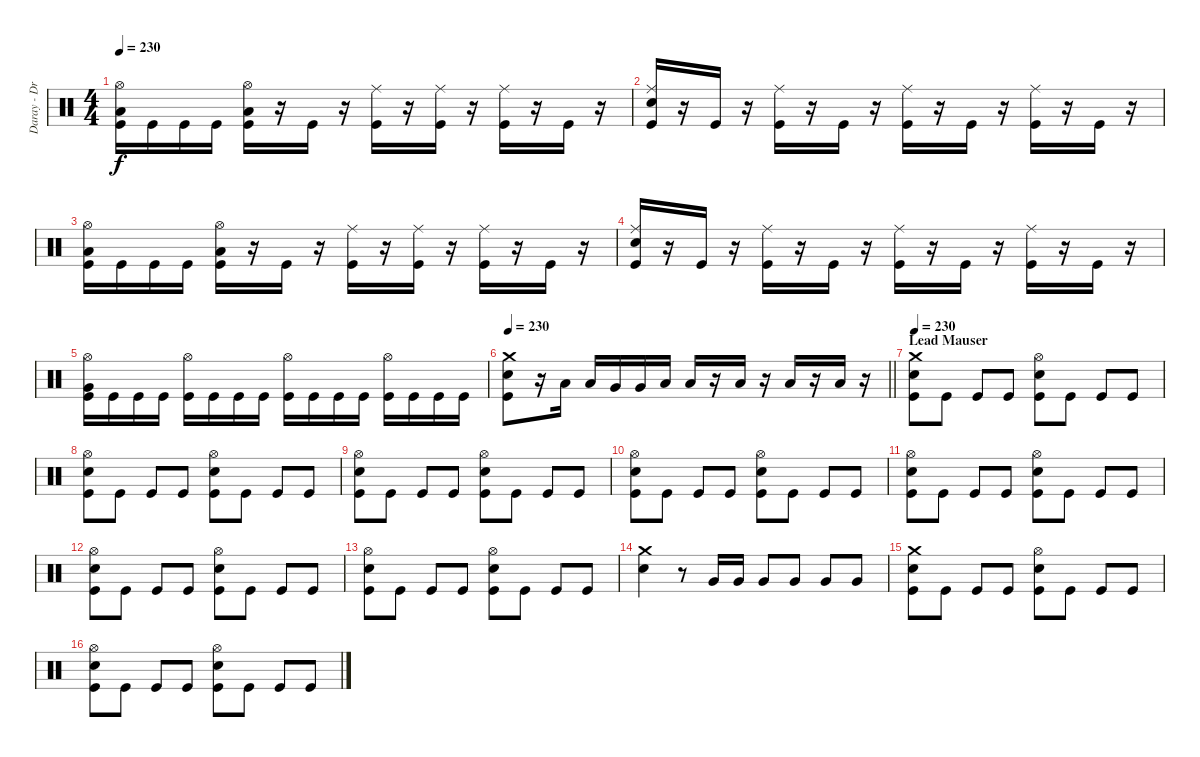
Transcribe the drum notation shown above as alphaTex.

\track ("Daray - Drums" "Daray - Dr") {instrument percussion}
\staff {score}
\articulation defaults
\ts (4 4)
\tempo 230
\clef neutral
\ks c
("Hi-Hat (open)" "Low Floor Tom (hit)" "Kick (hit)").16{dy f} "Kick (hit)".16 "Kick (hit)".16 "Kick (hit)".16 ("Hi-Hat (open)" "Low Floor Tom (hit)" "Kick (hit)").16 r.16 "Kick (hit)".16 r.16 ("Ride (middle)" "Kick (hit)").16 r.16 ("Ride (middle)" "Kick (hit)").16 r.16 ("Ride (middle)" "Kick (hit)").16 r.16 "Kick (hit)".16 r.16 |
("Ride (middle)" "Electric Snare (hit)" "Kick (hit)").16 r.16 "Kick (hit)".16 r.16 ("Ride (middle)" "Kick (hit)").16 r.16 "Kick (hit)".16 r.16 ("Ride (middle)" "Kick (hit)").16 r.16 "Kick (hit)".16 r.16 ("Ride (middle)" "Kick (hit)").16 r.16 "Kick (hit)".16 r.16 |
("Hi-Hat (open)" "Low Floor Tom (hit)" "Kick (hit)").16 "Kick (hit)".16 "Kick (hit)".16 "Kick (hit)".16 ("Hi-Hat (open)" "Low Floor Tom (hit)" "Kick (hit)").16 r.16 "Kick (hit)".16 r.16 ("Ride (middle)" "Kick (hit)").16 r.16 ("Ride (middle)" "Kick (hit)").16 r.16 ("Ride (middle)" "Kick (hit)").16 r.16 "Kick (hit)".16 r.16 |
("Ride (middle)" "Electric Snare (hit)" "Kick (hit)").16 r.16 "Kick (hit)".16 r.16 ("Ride (middle)" "Kick (hit)").16 r.16 "Kick (hit)".16 r.16 ("Ride (middle)" "Kick (hit)").16 r.16 "Kick (hit)".16 r.16 ("Ride (middle)" "Kick (hit)").16 r.16 "Kick (hit)".16 r.16 |
("Hi-Hat (open)" "Very Low Tom (hit)" "Kick (hit)").16 "Kick (hit)".16 "Kick (hit)".16 "Kick (hit)".16 ("Hi-Hat (open)" "Kick (hit)").16 "Kick (hit)".16 "Kick (hit)".16 "Kick (hit)".16 ("Hi-Hat (open)" "Kick (hit)").16 "Kick (hit)".16 "Kick (hit)".16 "Kick (hit)".16 ("Hi-Hat (open)" "Kick (hit)").16 "Kick (hit)".16 "Kick (hit)".16 "Kick (hit)".16 |
\tempo 230
\barLineRight lightlight
("Crash medium (hit)" "Electric Snare (hit)" "Kick (hit)").8 r.16 "Low Tom (hit)".16 "Low Tom (hit)".16 "Very Low Tom (hit)".16 "Very Low Tom (hit)".16 "Low Floor Tom (hit)".16 "Low Floor Tom (hit)".16 r.16 "Low Floor Tom (hit)".16 r.16 "Low Floor Tom (hit)".16 r.16 "Low Floor Tom (hit)".16 r.16 |
\section ("" "Lead Mauser")
\tempo 230
("Crash medium (hit)" "Electric Snare (hit)" "Kick (hit)").8 "Kick (hit)".8 "Kick (hit)".8 "Kick (hit)".8 ("Hi-Hat (open)" "Electric Snare (hit)" "Kick (hit)").8 "Kick (hit)".8 "Kick (hit)".8 "Kick (hit)".8 |
("Hi-Hat (open)" "Electric Snare (hit)" "Kick (hit)").8 "Kick (hit)".8 "Kick (hit)".8 "Kick (hit)".8 ("Hi-Hat (open)" "Electric Snare (hit)" "Kick (hit)").8 "Kick (hit)".8 "Kick (hit)".8 "Kick (hit)".8 |
("Hi-Hat (open)" "Electric Snare (hit)" "Kick (hit)").8 "Kick (hit)".8 "Kick (hit)".8 "Kick (hit)".8 ("Hi-Hat (open)" "Electric Snare (hit)" "Kick (hit)").8 "Kick (hit)".8 "Kick (hit)".8 "Kick (hit)".8 |
("Hi-Hat (open)" "Electric Snare (hit)" "Kick (hit)").8 "Kick (hit)".8 "Kick (hit)".8 "Kick (hit)".8 ("Hi-Hat (open)" "Electric Snare (hit)" "Kick (hit)").8 "Kick (hit)".8 "Kick (hit)".8 "Kick (hit)".8 |
("Hi-Hat (open)" "Electric Snare (hit)" "Kick (hit)").8 "Kick (hit)".8 "Kick (hit)".8 "Kick (hit)".8 ("Hi-Hat (open)" "Electric Snare (hit)" "Kick (hit)").8 "Kick (hit)".8 "Kick (hit)".8 "Kick (hit)".8 |
("Hi-Hat (open)" "Electric Snare (hit)" "Kick (hit)").8 "Kick (hit)".8 "Kick (hit)".8 "Kick (hit)".8 ("Hi-Hat (open)" "Electric Snare (hit)" "Kick (hit)").8 "Kick (hit)".8 "Kick (hit)".8 "Kick (hit)".8 |
("Hi-Hat (open)" "Electric Snare (hit)" "Kick (hit)").8 "Kick (hit)".8 "Kick (hit)".8 "Kick (hit)".8 ("Hi-Hat (open)" "Electric Snare (hit)" "Kick (hit)").8 "Kick (hit)".8 "Kick (hit)".8 "Kick (hit)".8 |
("Crash medium (hit)" "Electric Snare (hit)").4 r.8 "Very Low Tom (hit)".16 "Very Low Tom (hit)".16 "Very Low Tom (hit)".8 "Very Low Tom (hit)".8 "Very Low Tom (hit)".8 "Very Low Tom (hit)".8 |
("Crash medium (hit)" "Electric Snare (hit)" "Kick (hit)").8 "Kick (hit)".8 "Kick (hit)".8 "Kick (hit)".8 ("Hi-Hat (open)" "Electric Snare (hit)" "Kick (hit)").8 "Kick (hit)".8 "Kick (hit)".8 "Kick (hit)".8 |
("Hi-Hat (open)" "Electric Snare (hit)" "Kick (hit)").8 "Kick (hit)".8 "Kick (hit)".8 "Kick (hit)".8 ("Hi-Hat (open)" "Electric Snare (hit)" "Kick (hit)").8 "Kick (hit)".8 "Kick (hit)".8 "Kick (hit)".8
